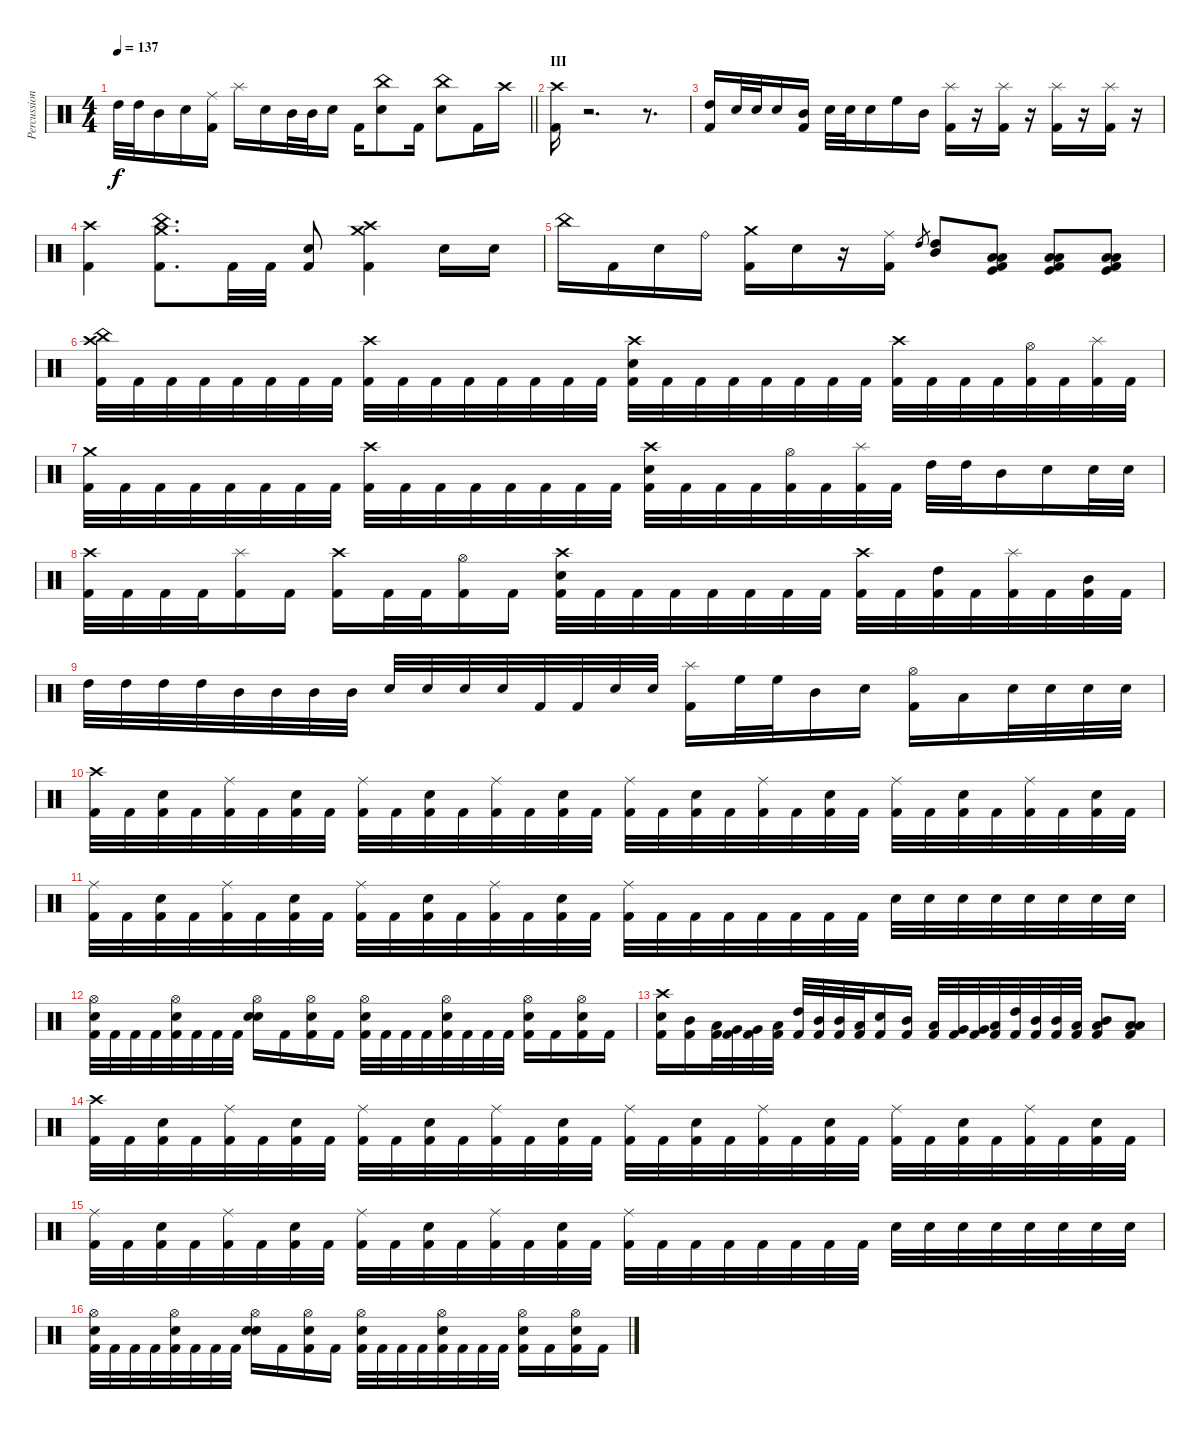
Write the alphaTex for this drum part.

\track ("Percussion" "Percussion") {instrument percussion}
\staff {score}
\articulation defaults
\ts (4 4)
\tempo 137
\clef neutral
\barLineRight lightlight
\ks c "High Tom (hit)".32{dy f} "High Tom (hit)".32 "Mid Tom (hit)".16 "Electric Snare (hit)".16
("Ride (middle)" "Kick (hit) 2").16 "Splash (hit)".16 "Electric Snare (hit)".16 "Mid Tom (hit)".32 "Mid Tom (hit)".32 "Electric Snare (hit)".16 "Kick (hit) 2".16 ("China (hit)" "Electric Snare (hit)").8 "Kick (hit) 2".16 ("China (hit)" "Electric Snare (hit)").8 "Kick (hit) 2".16 "Crash high (hit)".16 |
\section ("" "III")
("Crash high (hit)" "Kick (hit) 2").16 r.2{d volume 0} r.8{d} |
("High Tom (hit)" "Kick (hit) 2").16{volume 12} "Electric Snare (hit)".32 "Electric Snare (hit)".32 "Electric Snare (hit)".16 ("Mid Tom (hit)" "Kick (hit) 2").16 "Electric Snare (hit)".32 "Electric Snare (hit)".32 "Electric Snare (hit)".16 "High Floor Tom (hit)".16 "Mid Tom (hit)".16 ("Splash (hit)" "Kick (hit) 2").16 r.16{volume 0} ("Splash (hit)" "Kick (hit) 2").16{volume 12} r.16{volume 0} ("Splash (hit)" "Kick (hit) 2").16{volume 12} r.16{volume 0} ("Splash (hit)" "Kick (hit) 2").16{volume 12} r.16{volume 0} |
("Crash high (hit)" "Kick (hit) 2").4{volume 12} ("Crash medium (hit)" "China (hit)" "Kick (hit) 2").8{d} "Kick (hit) 2".32 "Kick (hit) 2".32 ("Electric Snare (hit)" "Kick (hit) 2").8 ("Crash medium (hit)" "Crash high (hit)" "Kick (hit) 2").4 "Electric Snare (hit)".16 "Electric Snare (hit)".16 |
"China (hit)".16 "Kick (hit) 2".16 "Electric Snare (hit)".16 "Ride (bell)".16 ("Crash medium (hit)" "Kick (hit) 2").16 "Electric Snare (hit)".16 r.16 ("Ride (middle)" "Kick (hit) 2").16 "High Tom (hit)".8{gr} ("High Tom (hit)" "Mid Tom (hit)").8 ("Kick (hit)" "Low Tom (hit)" "Low Floor Tom (hit)" "Kick (hit) 2").8 ("Kick (hit)" "Low Tom (hit)" "Low Floor Tom (hit)" "Kick (hit) 2").8 ("Kick (hit)" "Low Tom (hit)" "Low Floor Tom (hit)" "Kick (hit) 2").8 |
("Crash high (hit)" "China (hit)" "Kick (hit) 2").32 "Kick (hit) 2".32 "Kick (hit) 2".32 "Kick (hit) 2".32 "Kick (hit) 2".32 "Kick (hit) 2".32 "Kick (hit) 2".32 "Kick (hit) 2".32 ("Crash high (hit)" "Kick (hit) 2").32 "Kick (hit) 2".32 "Kick (hit) 2".32 "Kick (hit) 2".32 "Kick (hit) 2".32 "Kick (hit) 2".32 "Kick (hit) 2".32 "Kick (hit) 2".32 ("Crash high (hit)" "Electric Snare (hit)" "Kick (hit) 2").32 "Kick (hit) 2".32 "Kick (hit) 2".32 "Kick (hit) 2".32 "Kick (hit) 2".32 "Kick (hit) 2".32 "Kick (hit) 2".32 "Kick (hit) 2".32 ("Crash high (hit)" "Kick (hit) 2").32 "Kick (hit) 2".32 "Kick (hit) 2".32 "Kick (hit) 2".32 ("Hi-Hat (open)" "Kick (hit) 2").32 "Kick (hit) 2".32 ("Splash (hit)" "Kick (hit) 2").32 "Kick (hit) 2".32 |
("Crash medium (hit)" "Kick (hit) 2").32 "Kick (hit) 2".32 "Kick (hit) 2".32 "Kick (hit) 2".32 "Kick (hit) 2".32 "Kick (hit) 2".32 "Kick (hit) 2".32 "Kick (hit) 2".32 ("Crash high (hit)" "Kick (hit) 2").32 "Kick (hit) 2".32 "Kick (hit) 2".32 "Kick (hit) 2".32 "Kick (hit) 2".32 "Kick (hit) 2".32 "Kick (hit) 2".32 "Kick (hit) 2".32 ("Crash high (hit)" "Electric Snare (hit)" "Kick (hit) 2").32 "Kick (hit) 2".32 "Kick (hit) 2".32 "Kick (hit) 2".32 ("Hi-Hat (open)" "Kick (hit) 2").32 "Kick (hit) 2".32 ("Splash (hit)" "Kick (hit) 2").32 "Kick (hit) 2".32 "High Tom (hit)".32 "High Tom (hit)".32 "Mid Tom (hit)".16 "Electric Snare (hit)".16 "Electric Snare (hit)".32 "Electric Snare (hit)".32 |
("Crash high (hit)" "Kick (hit) 2").32 "Kick (hit) 2".32 "Kick (hit) 2".32 "Kick (hit) 2".32 ("Splash (hit)" "Kick (hit) 2").16 "Kick (hit) 2".16 ("Crash high (hit)" "Kick (hit) 2").16 "Kick (hit) 2".32 "Kick (hit) 2".32 ("Hi-Hat (open)" "Kick (hit) 2").16 "Kick (hit) 2".16 ("Crash high (hit)" "Electric Snare (hit)" "Kick (hit) 2").32 "Kick (hit) 2".32 "Kick (hit) 2".32 "Kick (hit) 2".32 "Kick (hit) 2".32 "Kick (hit) 2".32 "Kick (hit) 2".32 "Kick (hit) 2".32 ("Crash high (hit)" "Kick (hit) 2").32 "Kick (hit) 2".32 ("High Tom (hit)" "Kick (hit) 2").32 "Kick (hit) 2".32 ("Splash (hit)" "Kick (hit) 2").32 "Kick (hit) 2".32 ("Mid Tom (hit)" "Kick (hit) 2").32 "Kick (hit) 2".32 |
"High Tom (hit)".32 "High Tom (hit)".32 "High Tom (hit)".32 "High Tom (hit)".32 "Mid Tom (hit)".32 "Mid Tom (hit)".32 "Mid Tom (hit)".32 "Mid Tom (hit)".32 "Electric Snare (hit)".32 "Electric Snare (hit)".32 "Electric Snare (hit)".32 "Electric Snare (hit)".32 "Kick (hit) 2".32 "Kick (hit) 2".32 "Electric Snare (hit)".32 "Electric Snare (hit)".32 ("Splash (hit)" "Kick (hit) 2").16 "High Floor Tom (hit)".32 "High Floor Tom (hit)".32 "Mid Tom (hit)".16 "Electric Snare (hit)".16 ("Hi-Hat (open)" "Kick (hit) 2").16 "Low Tom (hit)".16 "Electric Snare (hit)".32 "Electric Snare (hit)".32 "Electric Snare (hit)".32 "Electric Snare (hit)".32 |
("Crash high (hit)" "Kick (hit) 2").32 "Kick (hit) 2".32 ("Electric Snare (hit)" "Kick (hit) 2").32 "Kick (hit) 2".32 ("Ride (middle)" "Kick (hit) 2").32 "Kick (hit) 2".32 ("Electric Snare (hit)" "Kick (hit) 2").32 "Kick (hit) 2".32 ("Ride (middle)" "Kick (hit) 2").32 "Kick (hit) 2".32 ("Electric Snare (hit)" "Kick (hit) 2").32 "Kick (hit) 2".32 ("Ride (middle)" "Kick (hit) 2").32 "Kick (hit) 2".32 ("Electric Snare (hit)" "Kick (hit) 2").32 "Kick (hit) 2".32 ("Ride (middle)" "Kick (hit) 2").32 "Kick (hit) 2".32 ("Electric Snare (hit)" "Kick (hit) 2").32 "Kick (hit) 2".32 ("Ride (middle)" "Kick (hit) 2").32 "Kick (hit) 2".32 ("Electric Snare (hit)" "Kick (hit) 2").32 "Kick (hit) 2".32 ("Ride (middle)" "Kick (hit) 2").32 "Kick (hit) 2".32 ("Electric Snare (hit)" "Kick (hit) 2").32 "Kick (hit) 2".32 ("Ride (middle)" "Kick (hit) 2").32 "Kick (hit) 2".32 ("Electric Snare (hit)" "Kick (hit) 2").32 "Kick (hit) 2".32 |
("Ride (middle)" "Kick (hit) 2").32 "Kick (hit) 2".32 ("Electric Snare (hit)" "Kick (hit) 2").32 "Kick (hit) 2".32 ("Ride (middle)" "Kick (hit) 2").32 "Kick (hit) 2".32 ("Electric Snare (hit)" "Kick (hit) 2").32 "Kick (hit) 2".32 ("Ride (middle)" "Kick (hit) 2").32 "Kick (hit) 2".32 ("Electric Snare (hit)" "Kick (hit) 2").32 "Kick (hit) 2".32 ("Ride (middle)" "Kick (hit) 2").32 "Kick (hit) 2".32 ("Electric Snare (hit)" "Kick (hit) 2").32 "Kick (hit) 2".32 ("Ride (middle)" "Kick (hit) 2").32 "Kick (hit) 2".32 "Kick (hit) 2".32 "Kick (hit) 2".32 "Kick (hit) 2".32 "Kick (hit) 2".32 "Kick (hit) 2".32 "Kick (hit) 2".32 "Electric Snare (hit)".32 "Electric Snare (hit)".32 "Electric Snare (hit)".32 "Electric Snare (hit)".32 "Electric Snare (hit)".32 "Electric Snare (hit)".32 "Electric Snare (hit)".32 "Electric Snare (hit)".32 |
("Hi-Hat (open)" "Electric Snare (hit)" "Kick (hit) 2").32 "Kick (hit) 2".32 "Kick (hit) 2".32 "Kick (hit) 2".32 ("Hi-Hat (open)" "Electric Snare (hit)" "Kick (hit) 2").32 "Kick (hit) 2".32 "Kick (hit) 2".32 "Kick (hit) 2".32 ("Hi-Hat (open)" "Electric Snare (hit)" "Snare (hit) 2").16 "Kick (hit) 2".16 ("Hi-Hat (open)" "Electric Snare (hit)" "Kick (hit) 2").16 "Kick (hit) 2".16 ("Hi-Hat (open)" "Electric Snare (hit)" "Kick (hit) 2").32 "Kick (hit) 2".32 "Kick (hit) 2".32 "Kick (hit) 2".32 ("Hi-Hat (open)" "Electric Snare (hit)" "Kick (hit) 2").32 "Kick (hit) 2".32 "Kick (hit) 2".32 "Kick (hit) 2".32 ("Hi-Hat (open)" "Electric Snare (hit)" "Kick (hit) 2").16 "Kick (hit) 2".16 ("Hi-Hat (open)" "Electric Snare (hit)" "Kick (hit) 2").16 "Kick (hit) 2".16 |
("Crash high (hit)" "Electric Snare (hit)" "Kick (hit) 2").16 ("Mid Tom (hit)" "Kick (hit) 2").16 ("Low Tom (hit)" "Kick (hit) 2").32 ("Very Low Tom (hit)" "Kick (hit) 2").32 ("Very Low Tom (hit)" "Kick (hit) 2").32 ("Low Floor Tom (hit)" "Kick (hit) 2").32 ("High Tom (hit)" "Kick (hit) 2").32 ("Mid Tom (hit)" "Kick (hit) 2").32 ("Mid Tom (hit)" "Kick (hit) 2").32 ("Low Tom (hit)" "Kick (hit) 2").32 ("Electric Snare (hit)" "Kick (hit) 2").16 ("Mid Tom (hit)" "Kick (hit) 2").16 ("Low Tom (hit)" "Kick (hit) 2").32 ("Very Low Tom (hit)" "Kick (hit) 2").32 ("Very Low Tom (hit)" "Kick (hit) 2").32 ("Low Floor Tom (hit)" "Kick (hit) 2").32 ("High Tom (hit)" "Kick (hit) 2").32 ("Mid Tom (hit)" "Kick (hit) 2").32 ("Mid Tom (hit)" "Kick (hit) 2").32 ("Low Tom (hit)" "Kick (hit) 2").32 ("Mid Tom (hit)" "Low Tom (hit)" "Kick (hit) 2").8 ("Low Tom (hit)" "Low Floor Tom (hit)" "Kick (hit) 2").8 |
("Crash high (hit)" "Kick (hit) 2").32 "Kick (hit) 2".32 ("Electric Snare (hit)" "Kick (hit) 2").32 "Kick (hit) 2".32 ("Ride (middle)" "Kick (hit) 2").32 "Kick (hit) 2".32 ("Electric Snare (hit)" "Kick (hit) 2").32 "Kick (hit) 2".32 ("Ride (middle)" "Kick (hit) 2").32 "Kick (hit) 2".32 ("Electric Snare (hit)" "Kick (hit) 2").32 "Kick (hit) 2".32 ("Ride (middle)" "Kick (hit) 2").32 "Kick (hit) 2".32 ("Electric Snare (hit)" "Kick (hit) 2").32 "Kick (hit) 2".32 ("Ride (middle)" "Kick (hit) 2").32 "Kick (hit) 2".32 ("Electric Snare (hit)" "Kick (hit) 2").32 "Kick (hit) 2".32 ("Ride (middle)" "Kick (hit) 2").32 "Kick (hit) 2".32 ("Electric Snare (hit)" "Kick (hit) 2").32 "Kick (hit) 2".32 ("Ride (middle)" "Kick (hit) 2").32 "Kick (hit) 2".32 ("Electric Snare (hit)" "Kick (hit) 2").32 "Kick (hit) 2".32 ("Ride (middle)" "Kick (hit) 2").32 "Kick (hit) 2".32 ("Electric Snare (hit)" "Kick (hit) 2").32 "Kick (hit) 2".32 |
("Ride (middle)" "Kick (hit) 2").32 "Kick (hit) 2".32 ("Electric Snare (hit)" "Kick (hit) 2").32 "Kick (hit) 2".32 ("Ride (middle)" "Kick (hit) 2").32 "Kick (hit) 2".32 ("Electric Snare (hit)" "Kick (hit) 2").32 "Kick (hit) 2".32 ("Ride (middle)" "Kick (hit) 2").32 "Kick (hit) 2".32 ("Electric Snare (hit)" "Kick (hit) 2").32 "Kick (hit) 2".32 ("Ride (middle)" "Kick (hit) 2").32 "Kick (hit) 2".32 ("Electric Snare (hit)" "Kick (hit) 2").32 "Kick (hit) 2".32 ("Ride (middle)" "Kick (hit) 2").32 "Kick (hit) 2".32 "Kick (hit) 2".32 "Kick (hit) 2".32 "Kick (hit) 2".32 "Kick (hit) 2".32 "Kick (hit) 2".32 "Kick (hit) 2".32 "Electric Snare (hit)".32 "Electric Snare (hit)".32 "Electric Snare (hit)".32 "Electric Snare (hit)".32 "Electric Snare (hit)".32 "Electric Snare (hit)".32 "Electric Snare (hit)".32 "Electric Snare (hit)".32 |
("Hi-Hat (open)" "Electric Snare (hit)" "Kick (hit) 2").32 "Kick (hit) 2".32 "Kick (hit) 2".32 "Kick (hit) 2".32 ("Hi-Hat (open)" "Electric Snare (hit)" "Kick (hit) 2").32 "Kick (hit) 2".32 "Kick (hit) 2".32 "Kick (hit) 2".32 ("Hi-Hat (open)" "Electric Snare (hit)" "Snare (hit) 2").16 "Kick (hit) 2".16 ("Hi-Hat (open)" "Electric Snare (hit)" "Kick (hit) 2").16 "Kick (hit) 2".16 ("Hi-Hat (open)" "Electric Snare (hit)" "Kick (hit) 2").32 "Kick (hit) 2".32 "Kick (hit) 2".32 "Kick (hit) 2".32 ("Hi-Hat (open)" "Electric Snare (hit)" "Kick (hit) 2").32 "Kick (hit) 2".32 "Kick (hit) 2".32 "Kick (hit) 2".32 ("Hi-Hat (open)" "Electric Snare (hit)" "Kick (hit) 2").16 "Kick (hit) 2".16 ("Hi-Hat (open)" "Electric Snare (hit)" "Kick (hit) 2").16 "Kick (hit) 2".16
